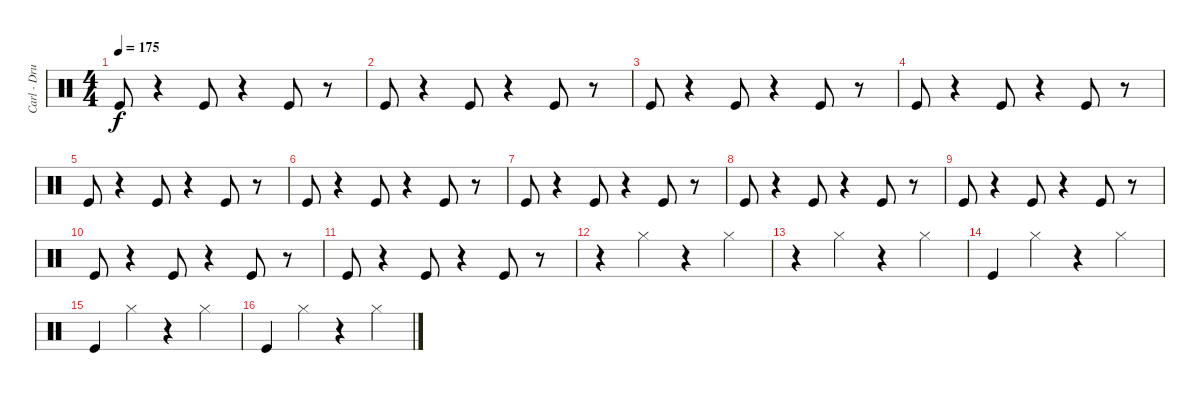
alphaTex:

\track ("Carl - Drums I" "Carl - Dru") {instrument percussion}
\staff {score}
\articulation defaults
\ts (4 4)
\tempo 175
\clef neutral
\ks c "Kick (hit)".8{dy f}
r.4 "Kick (hit)".8 r.4 "Kick (hit)".8 r.8 |
"Kick (hit)".8 r.4 "Kick (hit)".8 r.4 "Kick (hit)".8 r.8 |
"Kick (hit)".8 r.4 "Kick (hit)".8 r.4 "Kick (hit)".8 r.8 |
"Kick (hit)".8 r.4 "Kick (hit)".8 r.4 "Kick (hit)".8 r.8 |
"Kick (hit)".8 r.4 "Kick (hit)".8 r.4 "Kick (hit)".8 r.8 |
"Kick (hit)".8 r.4 "Kick (hit)".8 r.4 "Kick (hit)".8 r.8 |
"Kick (hit)".8 r.4 "Kick (hit)".8 r.4 "Kick (hit)".8 r.8 |
"Kick (hit)".8 r.4 "Kick (hit)".8 r.4 "Kick (hit)".8 r.8 |
"Kick (hit)".8 r.4 "Kick (hit)".8 r.4 "Kick (hit)".8 r.8 |
"Kick (hit)".8 r.4 "Kick (hit)".8 r.4 "Kick (hit)".8 r.8 |
"Kick (hit)".8 r.4 "Kick (hit)".8 r.4 "Kick (hit)".8 r.8 |
r.4 "Hi-Hat (closed)".4 r.4 "Hi-Hat (closed)".4 |
r.4 "Hi-Hat (closed)".4 r.4 "Hi-Hat (closed)".4 |
"Kick (hit)".4 "Hi-Hat (closed)".4 r.4 "Hi-Hat (closed)".4 |
"Kick (hit)".4 "Hi-Hat (closed)".4 r.4 "Hi-Hat (closed)".4 |
"Kick (hit)".4 "Hi-Hat (closed)".4 r.4 "Hi-Hat (closed)".4
